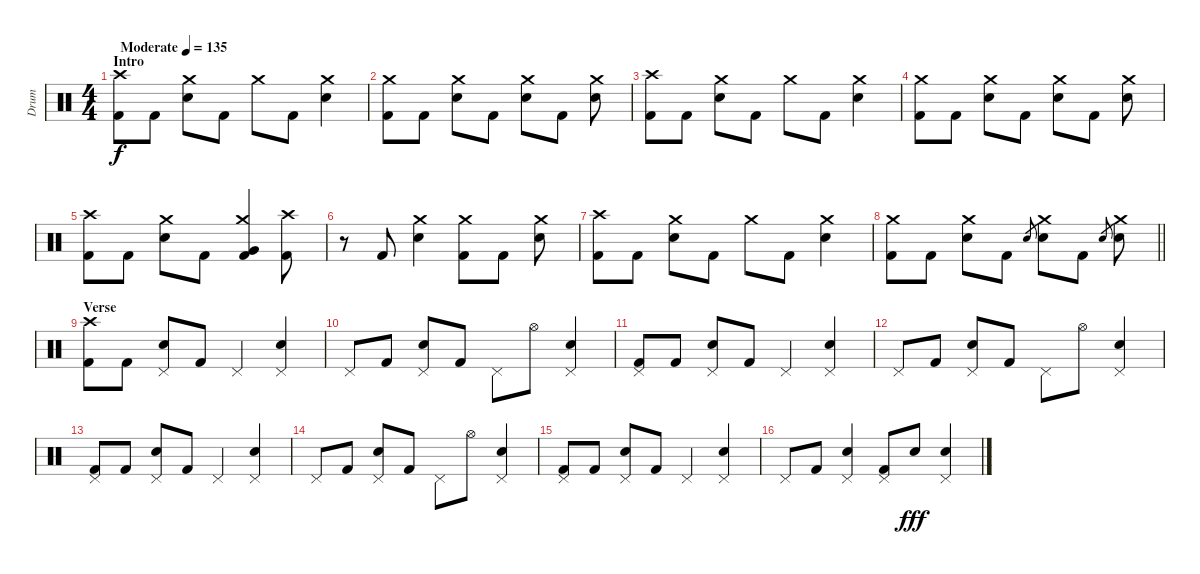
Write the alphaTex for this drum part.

\track ("Drum" "Drum") {instrument percussion bank 127}
\staff {score}
\articulation defaults
\ts (4 4)
\section ("" "Intro")
\tempo (135 "Moderate")
\clef neutral
\ks c
("Crash high (hit)" "Kick (hit) 2").8{dy f} "Kick (hit) 2".8 ("Crash medium (hit)" "Electric Snare (hit)").8 "Kick (hit) 2".8 "Crash medium (hit)".8 "Kick (hit) 2".8 ("Crash medium (hit)" "Electric Snare (hit)").4 |
("Crash medium (hit)" "Kick (hit) 2").8 "Kick (hit) 2".8 ("Crash medium (hit)" "Electric Snare (hit)").8 "Kick (hit) 2".8 ("Crash medium (hit)" "Electric Snare (hit)").8 "Kick (hit) 2".8 ("Crash medium (hit)" "Electric Snare (hit)").8 |
("Crash high (hit)" "Kick (hit) 2").8 "Kick (hit) 2".8 ("Crash medium (hit)" "Electric Snare (hit)").8 "Kick (hit) 2".8 "Crash medium (hit)".8 "Kick (hit) 2".8 ("Crash medium (hit)" "Electric Snare (hit)").4 |
("Crash medium (hit)" "Kick (hit) 2").8 "Kick (hit) 2".8 ("Crash medium (hit)" "Electric Snare (hit)").8 "Kick (hit) 2".8 ("Crash medium (hit)" "Electric Snare (hit)").8 "Kick (hit) 2".8 ("Crash medium (hit)" "Electric Snare (hit)").8 |
("Crash high (hit)" "Kick (hit) 2").8 "Kick (hit) 2".8 ("Crash medium (hit)" "Electric Snare (hit)").8 "Kick (hit) 2".8 ("Crash medium (hit)" "Kick (hit) 2" "Very Low Tom (hit)").4 ("Crash high (hit)" "Kick (hit) 2").8 |
r.8 "Kick (hit) 2".8 ("Crash medium (hit)" "Electric Snare (hit)").4 ("Crash medium (hit)" "Kick (hit) 2").8 "Kick (hit) 2".8 ("Crash medium (hit)" "Electric Snare (hit)").8 |
("Crash high (hit)" "Kick (hit) 2").8 "Kick (hit) 2".8 ("Crash medium (hit)" "Electric Snare (hit)").8 "Kick (hit) 2".8 "Crash medium (hit)".8 "Kick (hit) 2".8 ("Crash medium (hit)" "Electric Snare (hit)").4 |
\barLineRight lightlight
("Crash medium (hit)" "Kick (hit) 2").8 "Kick (hit) 2".8 ("Crash medium (hit)" "Electric Snare (hit)").8 "Kick (hit) 2".8 "Electric Snare (hit)".8{gr} ("Crash medium (hit)" "Electric Snare (hit)").8 "Kick (hit) 2".8 "Electric Snare (hit)".8{gr} ("Crash medium (hit)" "Electric Snare (hit)").8 |
\section ("" "Verse")
("Crash high (hit)" "Kick (hit) 2").8 "Kick (hit) 2".8 ("Pedal Hi-Hat (hit)" "Electric Snare (hit)").8 "Kick (hit) 2".8 "Pedal Hi-Hat (hit)".4 ("Pedal Hi-Hat (hit)" "Electric Snare (hit)").4 |
"Pedal Hi-Hat (hit)".8 "Kick (hit) 2".8 ("Pedal Hi-Hat (hit)" "Electric Snare (hit)").8 "Kick (hit) 2".8 "Pedal Hi-Hat (hit)".8 "Hi-Hat (open)".8 ("Pedal Hi-Hat (hit)" "Electric Snare (hit)").4 |
("Pedal Hi-Hat (hit)" "Kick (hit) 2").8 "Kick (hit) 2".8 ("Pedal Hi-Hat (hit)" "Electric Snare (hit)").8 "Kick (hit) 2".8 "Pedal Hi-Hat (hit)".4 ("Pedal Hi-Hat (hit)" "Electric Snare (hit)").4 |
"Pedal Hi-Hat (hit)".8 "Kick (hit) 2".8 ("Pedal Hi-Hat (hit)" "Electric Snare (hit)").8 "Kick (hit) 2".8 "Pedal Hi-Hat (hit)".8 "Hi-Hat (open)".8 ("Pedal Hi-Hat (hit)" "Electric Snare (hit)").4 |
("Pedal Hi-Hat (hit)" "Kick (hit) 2").8 "Kick (hit) 2".8 ("Pedal Hi-Hat (hit)" "Electric Snare (hit)").8 "Kick (hit) 2".8 "Pedal Hi-Hat (hit)".4 ("Pedal Hi-Hat (hit)" "Electric Snare (hit)").4 |
"Pedal Hi-Hat (hit)".8 "Kick (hit) 2".8 ("Pedal Hi-Hat (hit)" "Electric Snare (hit)").8 "Kick (hit) 2".8 "Pedal Hi-Hat (hit)".8 "Hi-Hat (open)".8 ("Pedal Hi-Hat (hit)" "Electric Snare (hit)").4 |
("Pedal Hi-Hat (hit)" "Kick (hit) 2").8 "Kick (hit) 2".8 ("Pedal Hi-Hat (hit)" "Electric Snare (hit)").8 "Kick (hit) 2".8 "Pedal Hi-Hat (hit)".4 ("Pedal Hi-Hat (hit)" "Electric Snare (hit)").4 |
"Pedal Hi-Hat (hit)".8 "Kick (hit) 2".8 ("Pedal Hi-Hat (hit)" "Electric Snare (hit)").4 ("Pedal Hi-Hat (hit)" "Kick (hit) 2").8 "Electric Snare (hit)".8{dy fff} ("Pedal Hi-Hat (hit)" "Electric Snare (hit)").4
